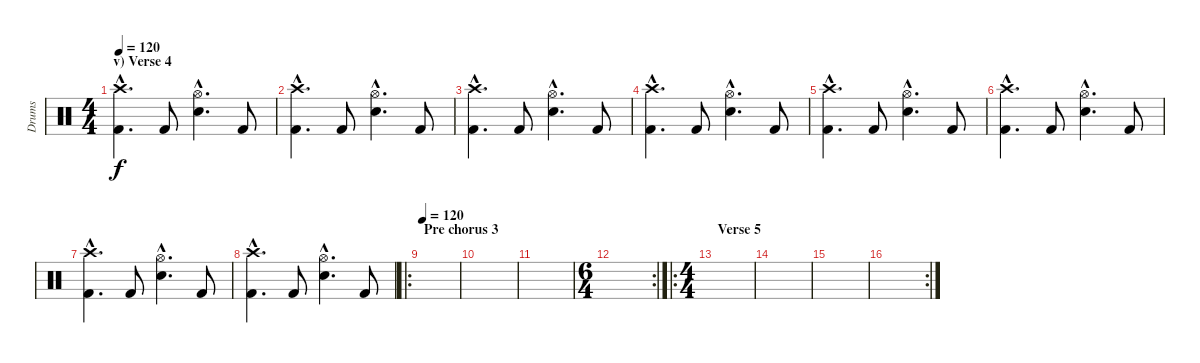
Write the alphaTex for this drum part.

\track ("Drums" "Drums") {instrument percussion}
\staff {score}
\articulation defaults
\ts (4 4)
\section ("" "v) Verse 4")
\tempo 120
\clef neutral
\ks c
("Crash high (hit)"{hac} "Kick (hit) 2"{hac}).4{d dy f} "Kick (hit) 2".8 ("Hi-Hat (open)"{hac} "Electric Snare (hit)"{hac}).4{d} "Kick (hit) 2".8 |
("Crash high (hit)"{hac} "Kick (hit) 2"{hac}).4{d} "Kick (hit) 2".8 ("Hi-Hat (open)"{hac} "Electric Snare (hit)"{hac}).4{d} "Kick (hit) 2".8 |
("Crash high (hit)"{hac} "Kick (hit) 2"{hac}).4{d} "Kick (hit) 2".8 ("Hi-Hat (open)"{hac} "Electric Snare (hit)"{hac}).4{d} "Kick (hit) 2".8 |
("Crash high (hit)"{hac} "Kick (hit) 2"{hac}).4{d} "Kick (hit) 2".8 ("Hi-Hat (open)"{hac} "Electric Snare (hit)"{hac}).4{d} "Kick (hit) 2".8 |
("Crash high (hit)"{hac} "Kick (hit) 2"{hac}).4{d} "Kick (hit) 2".8 ("Hi-Hat (open)"{hac} "Electric Snare (hit)"{hac}).4{d} "Kick (hit) 2".8 |
("Crash high (hit)"{hac} "Kick (hit) 2"{hac}).4{d} "Kick (hit) 2".8 ("Hi-Hat (open)"{hac} "Electric Snare (hit)"{hac}).4{d} "Kick (hit) 2".8 |
("Crash high (hit)"{hac} "Kick (hit) 2"{hac}).4{d} "Kick (hit) 2".8 ("Hi-Hat (open)"{hac} "Electric Snare (hit)"{hac}).4{d} "Kick (hit) 2".8 |
("Crash high (hit)"{hac} "Kick (hit) 2"{hac}).4{d} "Kick (hit) 2".8 ("Hi-Hat (open)"{hac} "Electric Snare (hit)"{hac}).4{d} "Kick (hit) 2".8 |
\ro
\section ("" "Pre chorus 3")
\tempo 120
|
|
|
\rc 2
\ts (6 4)
|
\ro
\ts (4 4)
\section ("" "Verse 5")
|
|
|
\rc 2
